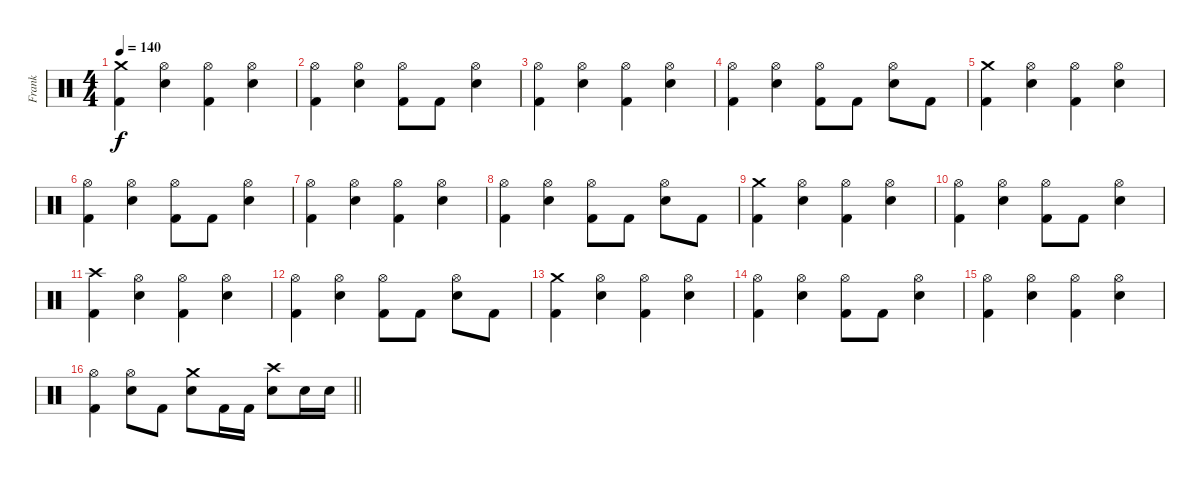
\track ("Frank" "Frank") {instrument percussion}
\staff {score}
\articulation defaults
\ts (4 4)
\tempo 140
\clef neutral
\ks c
("Crash medium (hit)" "Kick (hit) 2").4{dy f} ("Hi-Hat (open)" "Snare (hit) 2").4 ("Hi-Hat (open)" "Kick (hit) 2").4 ("Hi-Hat (open)" "Snare (hit) 2").4 |
("Hi-Hat (open)" "Kick (hit) 2").4 ("Hi-Hat (open)" "Snare (hit) 2").4 ("Hi-Hat (open)" "Kick (hit) 2").8 "Kick (hit) 2".8 ("Hi-Hat (open)" "Snare (hit) 2").4 |
("Hi-Hat (open)" "Kick (hit) 2").4 ("Hi-Hat (open)" "Snare (hit) 2").4 ("Hi-Hat (open)" "Kick (hit) 2").4 ("Hi-Hat (open)" "Snare (hit) 2").4 |
("Hi-Hat (open)" "Kick (hit) 2").4 ("Hi-Hat (open)" "Snare (hit) 2").4 ("Hi-Hat (open)" "Kick (hit) 2").8 "Kick (hit) 2".8 ("Hi-Hat (open)" "Snare (hit) 2").8 "Kick (hit) 2".8 |
("Crash medium (hit)" "Kick (hit) 2").4 ("Hi-Hat (open)" "Snare (hit) 2").4 ("Hi-Hat (open)" "Kick (hit) 2").4 ("Hi-Hat (open)" "Snare (hit) 2").4 |
("Hi-Hat (open)" "Kick (hit) 2").4 ("Hi-Hat (open)" "Snare (hit) 2").4 ("Hi-Hat (open)" "Kick (hit) 2").8 "Kick (hit) 2".8 ("Hi-Hat (open)" "Snare (hit) 2").4 |
("Hi-Hat (open)" "Kick (hit) 2").4 ("Hi-Hat (open)" "Snare (hit) 2").4 ("Hi-Hat (open)" "Kick (hit) 2").4 ("Hi-Hat (open)" "Snare (hit) 2").4 |
("Hi-Hat (open)" "Kick (hit) 2").4 ("Hi-Hat (open)" "Snare (hit) 2").4 ("Hi-Hat (open)" "Kick (hit) 2").8 "Kick (hit) 2".8 ("Hi-Hat (open)" "Snare (hit) 2").8 "Kick (hit) 2".8 |
("Crash medium (hit)" "Kick (hit) 2").4 ("Hi-Hat (open)" "Snare (hit) 2").4 ("Hi-Hat (open)" "Kick (hit) 2").4 ("Hi-Hat (open)" "Snare (hit) 2").4 |
("Hi-Hat (open)" "Kick (hit) 2").4 ("Hi-Hat (open)" "Snare (hit) 2").4 ("Hi-Hat (open)" "Kick (hit) 2").8 "Kick (hit) 2".8 ("Hi-Hat (open)" "Snare (hit) 2").4 |
("Crash high (hit)" "Kick (hit) 2").4 ("Hi-Hat (open)" "Snare (hit) 2").4 ("Hi-Hat (open)" "Kick (hit) 2").4 ("Hi-Hat (open)" "Snare (hit) 2").4 |
("Hi-Hat (open)" "Kick (hit) 2").4 ("Hi-Hat (open)" "Snare (hit) 2").4 ("Hi-Hat (open)" "Kick (hit) 2").8 "Kick (hit) 2".8 ("Hi-Hat (open)" "Snare (hit) 2").8 "Kick (hit) 2".8 |
("Crash medium (hit)" "Kick (hit) 2").4 ("Hi-Hat (open)" "Snare (hit) 2").4 ("Hi-Hat (open)" "Kick (hit) 2").4 ("Hi-Hat (open)" "Snare (hit) 2").4 |
("Hi-Hat (open)" "Kick (hit) 2").4 ("Hi-Hat (open)" "Snare (hit) 2").4 ("Hi-Hat (open)" "Kick (hit) 2").8 "Kick (hit) 2".8 ("Hi-Hat (open)" "Snare (hit) 2").4 |
("Hi-Hat (open)" "Kick (hit) 2").4 ("Hi-Hat (open)" "Snare (hit) 2").4 ("Hi-Hat (open)" "Kick (hit) 2").4 ("Hi-Hat (open)" "Snare (hit) 2").4 |
\barLineRight lightlight
("Hi-Hat (open)" "Kick (hit) 2").4 ("Hi-Hat (open)" "Snare (hit) 2").8 "Kick (hit) 2".8 ("Crash medium (hit)" "Snare (hit) 2").8 "Kick (hit) 2".16 "Kick (hit) 2".16 ("Crash high (hit)" "Snare (hit) 2").8 "Snare (hit) 2".16 "Snare (hit) 2".16
